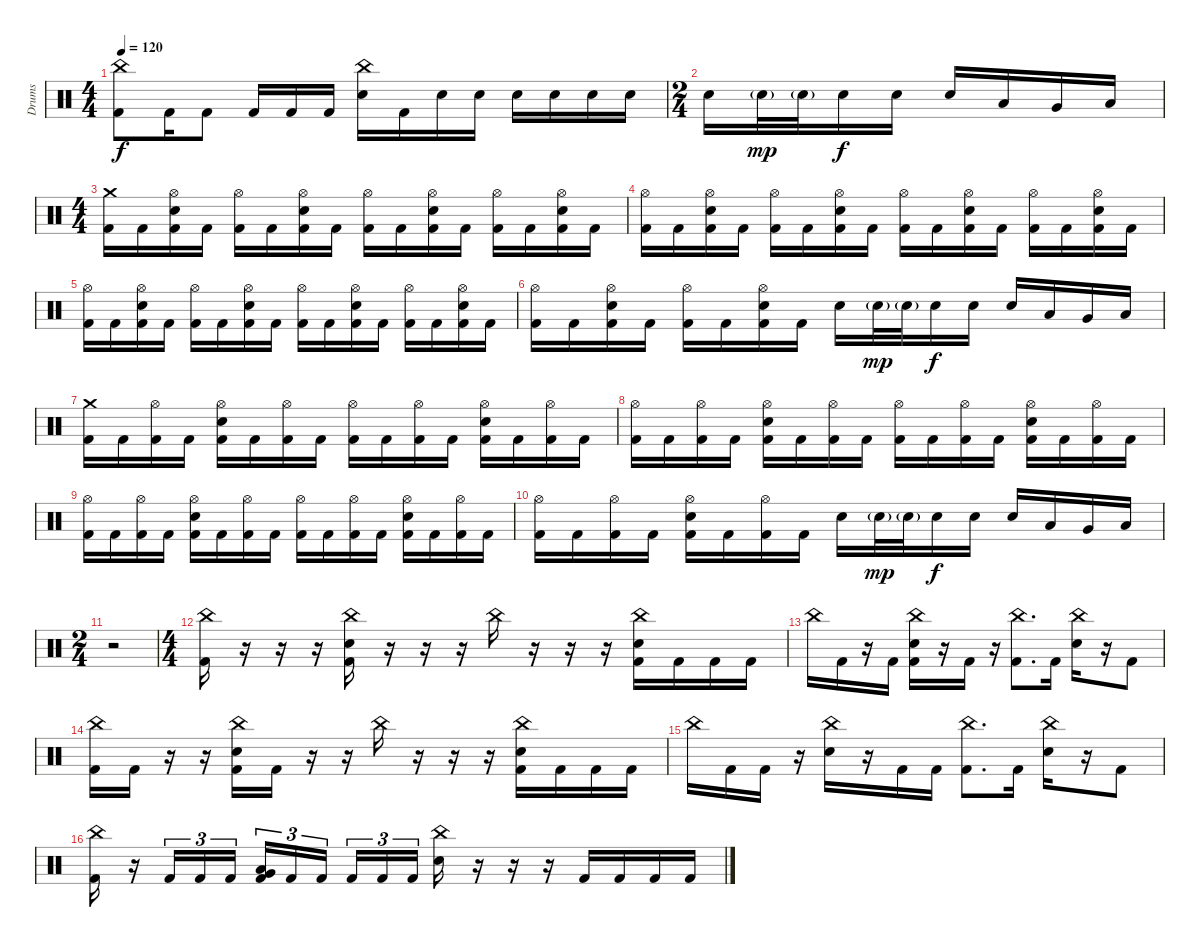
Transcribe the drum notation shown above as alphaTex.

\track ("Drums" "Drums") {instrument percussion}
\staff {score}
\articulation defaults
\ts (4 4)
\tempo 120
\clef neutral
\ks c
("China (hit)" "Kick (hit) 2").8{dy f} "Kick (hit) 2".16 "Kick (hit) 2".8 "Kick (hit) 2".16 "Kick (hit) 2".16 "Kick (hit) 2".16 ("China (hit)" "Electric Snare (hit)").16 "Kick (hit) 2".16 "Electric Snare (hit)".16 "Electric Snare (hit)".16 "Electric Snare (hit)".16 "Electric Snare (hit)".16 "Electric Snare (hit)".16 "Electric Snare (hit)".16 |
\ts (2 4)
"Electric Snare (hit)".16 "Snare (hit) 2"{g}.32{dy mp} "Snare (hit) 2"{g}.32 "Electric Snare (hit)".16{dy f} "Electric Snare (hit)".16 "Electric Snare (hit)".16 "Low Tom (hit)".16 "Very Low Tom (hit)".16 "Low Floor Tom (hit)".16 |
\ts (4 4)
("Crash medium (hit)" "Kick (hit) 2").16 "Kick (hit) 2".16 ("Hi-Hat (open)" "Electric Snare (hit)" "Kick (hit) 2").16 "Kick (hit) 2".16 ("Hi-Hat (open)" "Kick (hit) 2").16 "Kick (hit) 2".16 ("Hi-Hat (open)" "Electric Snare (hit)" "Kick (hit) 2").16 "Kick (hit) 2".16 ("Hi-Hat (open)" "Kick (hit) 2").16 "Kick (hit) 2".16 ("Hi-Hat (open)" "Electric Snare (hit)" "Kick (hit) 2").16 "Kick (hit) 2".16 ("Hi-Hat (open)" "Kick (hit) 2").16 "Kick (hit) 2".16 ("Hi-Hat (open)" "Electric Snare (hit)" "Kick (hit) 2").16 "Kick (hit) 2".16 |
("Hi-Hat (open)" "Kick (hit) 2").16 "Kick (hit) 2".16 ("Hi-Hat (open)" "Electric Snare (hit)" "Kick (hit) 2").16 "Kick (hit) 2".16 ("Hi-Hat (open)" "Kick (hit) 2").16 "Kick (hit) 2".16 ("Hi-Hat (open)" "Electric Snare (hit)" "Kick (hit) 2").16 "Kick (hit) 2".16 ("Hi-Hat (open)" "Kick (hit) 2").16 "Kick (hit) 2".16 ("Hi-Hat (open)" "Electric Snare (hit)" "Kick (hit) 2").16 "Kick (hit) 2".16 ("Hi-Hat (open)" "Kick (hit) 2").16 "Kick (hit) 2".16 ("Hi-Hat (open)" "Electric Snare (hit)" "Kick (hit) 2").16 "Kick (hit) 2".16 |
("Hi-Hat (open)" "Kick (hit) 2").16 "Kick (hit) 2".16 ("Hi-Hat (open)" "Electric Snare (hit)" "Kick (hit) 2").16 "Kick (hit) 2".16 ("Hi-Hat (open)" "Kick (hit) 2").16 "Kick (hit) 2".16 ("Hi-Hat (open)" "Electric Snare (hit)" "Kick (hit) 2").16 "Kick (hit) 2".16 ("Hi-Hat (open)" "Kick (hit) 2").16 "Kick (hit) 2".16 ("Hi-Hat (open)" "Electric Snare (hit)" "Kick (hit) 2").16 "Kick (hit) 2".16 ("Hi-Hat (open)" "Kick (hit) 2").16 "Kick (hit) 2".16 ("Hi-Hat (open)" "Electric Snare (hit)" "Kick (hit) 2").16 "Kick (hit) 2".16 |
("Hi-Hat (open)" "Kick (hit) 2").16 "Kick (hit) 2".16 ("Hi-Hat (open)" "Electric Snare (hit)" "Kick (hit) 2").16 "Kick (hit) 2".16 ("Hi-Hat (open)" "Kick (hit) 2").16 "Kick (hit) 2".16 ("Hi-Hat (open)" "Electric Snare (hit)" "Kick (hit) 2").16 "Kick (hit) 2".16 "Electric Snare (hit)".16 "Snare (hit) 2"{g}.32{dy mp} "Snare (hit) 2"{g}.32 "Electric Snare (hit)".16{dy f} "Electric Snare (hit)".16 "Electric Snare (hit)".16 "Low Tom (hit)".16 "Very Low Tom (hit)".16 "Low Floor Tom (hit)".16 |
("Crash medium (hit)" "Kick (hit) 2").16 "Kick (hit) 2".16 ("Hi-Hat (open)" "Kick (hit) 2").16 "Kick (hit) 2".16 ("Hi-Hat (open)" "Electric Snare (hit)" "Kick (hit) 2").16 "Kick (hit) 2".16 ("Hi-Hat (open)" "Kick (hit) 2").16 "Kick (hit) 2".16 ("Hi-Hat (open)" "Kick (hit) 2").16 "Kick (hit) 2".16 ("Hi-Hat (open)" "Kick (hit) 2").16 "Kick (hit) 2".16 ("Hi-Hat (open)" "Electric Snare (hit)" "Kick (hit) 2").16 "Kick (hit) 2".16 ("Hi-Hat (open)" "Kick (hit) 2").16 "Kick (hit) 2".16 |
("Hi-Hat (open)" "Kick (hit) 2").16 "Kick (hit) 2".16 ("Hi-Hat (open)" "Kick (hit) 2").16 "Kick (hit) 2".16 ("Hi-Hat (open)" "Electric Snare (hit)" "Kick (hit) 2").16 "Kick (hit) 2".16 ("Hi-Hat (open)" "Kick (hit) 2").16 "Kick (hit) 2".16 ("Hi-Hat (open)" "Kick (hit) 2").16 "Kick (hit) 2".16 ("Hi-Hat (open)" "Kick (hit) 2").16 "Kick (hit) 2".16 ("Hi-Hat (open)" "Electric Snare (hit)" "Kick (hit) 2").16 "Kick (hit) 2".16 ("Hi-Hat (open)" "Kick (hit) 2").16 "Kick (hit) 2".16 |
("Hi-Hat (open)" "Kick (hit) 2").16 "Kick (hit) 2".16 ("Hi-Hat (open)" "Kick (hit) 2").16 "Kick (hit) 2".16 ("Hi-Hat (open)" "Electric Snare (hit)" "Kick (hit) 2").16 "Kick (hit) 2".16 ("Hi-Hat (open)" "Kick (hit) 2").16 "Kick (hit) 2".16 ("Hi-Hat (open)" "Kick (hit) 2").16 "Kick (hit) 2".16 ("Hi-Hat (open)" "Kick (hit) 2").16 "Kick (hit) 2".16 ("Hi-Hat (open)" "Electric Snare (hit)" "Kick (hit) 2").16 "Kick (hit) 2".16 ("Hi-Hat (open)" "Kick (hit) 2").16 "Kick (hit) 2".16 |
("Hi-Hat (open)" "Kick (hit) 2").16 "Kick (hit) 2".16 ("Hi-Hat (open)" "Kick (hit) 2").16 "Kick (hit) 2".16 ("Hi-Hat (open)" "Electric Snare (hit)" "Kick (hit) 2").16 "Kick (hit) 2".16 ("Hi-Hat (open)" "Kick (hit) 2").16 "Kick (hit) 2".16 "Electric Snare (hit)".16 "Snare (hit) 2"{g}.32{dy mp} "Snare (hit) 2"{g}.32 "Electric Snare (hit)".16{dy f} "Electric Snare (hit)".16 "Electric Snare (hit)".16 "Low Tom (hit)".16 "Very Low Tom (hit)".16 "Low Floor Tom (hit)".16 |
\ts (2 4)
r.2 |
\ts (4 4)
("China (hit)" "Kick (hit) 2").16 r.16 r.16 r.16 ("China (hit)" "Electric Snare (hit)" "Kick (hit) 2").16 r.16 r.16 r.16 "China (hit)".16 r.16 r.16 r.16 ("China (hit)" "Electric Snare (hit)" "Kick (hit) 2").16 "Kick (hit) 2".16 "Kick (hit) 2".16 "Kick (hit) 2".16 |
"China (hit)".16 "Kick (hit) 2".16 r.16 "Kick (hit) 2".16 ("China (hit)" "Electric Snare (hit)" "Kick (hit) 2").16 r.16 "Kick (hit) 2".16 r.16 ("China (hit)" "Kick (hit) 2").8{d} "Kick (hit) 2".16 ("China (hit)" "Electric Snare (hit)").16 r.16 "Kick (hit) 2".8 |
("China (hit)" "Kick (hit) 2").16 "Kick (hit) 2".16 r.16 r.16 ("China (hit)" "Electric Snare (hit)" "Kick (hit) 2").16 "Kick (hit) 2".16 r.16 r.16 "China (hit)".16 r.16 r.16 r.16 ("China (hit)" "Electric Snare (hit)" "Kick (hit) 2").16 "Kick (hit) 2".16 "Kick (hit) 2".16 "Kick (hit) 2".16 |
"China (hit)".16 "Kick (hit) 2".16 "Kick (hit) 2".16 r.16 ("China (hit)" "Electric Snare (hit)").16 r.16 "Kick (hit) 2".16 "Kick (hit) 2".16 ("China (hit)" "Kick (hit) 2").8{d} "Kick (hit) 2".16 ("China (hit)" "Electric Snare (hit)").16 r.16 "Kick (hit) 2".8 |
("China (hit)" "Kick (hit) 2").16 r.16 "Kick (hit) 2".16{tu (3 2)} "Kick (hit) 2".16{tu (3 2)} "Kick (hit) 2".16{tu (3 2)} ("Low Floor Tom (hit)" "Very Low Tom (hit)" "Kick (hit) 2").16{tu (3 2)} "Kick (hit) 2".16{tu (3 2)} "Kick (hit) 2".16{tu (3 2)} "Kick (hit) 2".16{tu (3 2)} "Kick (hit) 2".16{tu (3 2)} "Kick (hit) 2".16{tu (3 2)} ("China (hit)" "Electric Snare (hit)").16 r.16 r.16 r.16 "Kick (hit) 2".16 "Kick (hit) 2".16 "Kick (hit) 2".16 "Kick (hit) 2".16
